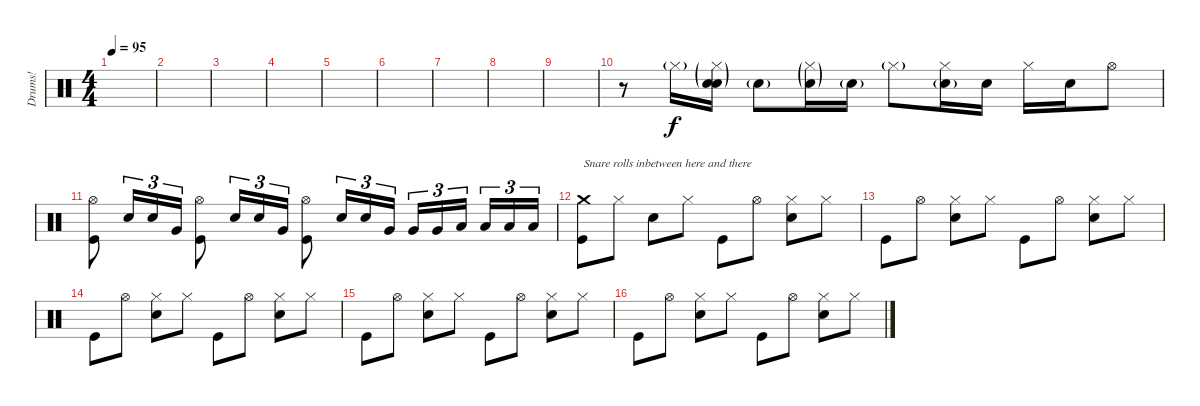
\track ("Drums!" "Drums!") {instrument percussion}
\staff {score}
\articulation defaults
\ts (4 4)
\tempo 95
\clef neutral
\ks c
|
|
|
|
|
|
|
|
|
r.8 "Hi-Hat (closed)"{g}.16 ("Hi-Hat (closed)"{g} "Electric Snare (hit)"{g} "Electric Snare (hit)").16 "Electric Snare (hit)"{g}.8 ("Hi-Hat (closed)"{g} "Electric Snare (hit)"{g}).16 "Electric Snare (hit)"{g}.16 "Hi-Hat (closed)"{g}.8 ("Hi-Hat (closed)" "Electric Snare (hit)"{g}).16 "Electric Snare (hit)".16{dy f} "Hi-Hat (closed)".16 "Electric Snare (hit)".16 "Hi-Hat (open)".8 |
("Hi-Hat (open)" "Kick (hit)").8 "Electric Snare (hit)".16{tu (3 2)} "Electric Snare (hit)".16{tu (3 2)} "Very Low Tom (hit)".16{tu (3 2)} ("Hi-Hat (open)" "Kick (hit)").8 "Electric Snare (hit)".16{tu (3 2)} "Electric Snare (hit)".16{tu (3 2)} "Very Low Tom (hit)".16{tu (3 2)} ("Hi-Hat (open)" "Kick (hit)").8 "Electric Snare (hit)".16{tu (3 2)} "Electric Snare (hit)".16{tu (3 2)} "Very Low Tom (hit)".16{tu (3 2)} "Very Low Tom (hit)".16{tu (3 2)} "Very Low Tom (hit)".16{tu (3 2)} "Low Floor Tom (hit)".16{tu (3 2) beam splitsecondary} "Low Floor Tom (hit)".16{tu (3 2)} "Low Floor Tom (hit)".16{tu (3 2)} "Low Floor Tom (hit)".16{tu (3 2)} |
("Crash medium (hit)" "Kick (hit)").8{txt "Snare rolls inbetween here and there"} "Hi-Hat (closed)".8 "Electric Snare (hit)".8 "Hi-Hat (closed)".8 "Kick (hit)".8 "Hi-Hat (open)".8 ("Hi-Hat (closed)" "Electric Snare (hit)").8 "Hi-Hat (closed)".8 |
"Kick (hit)".8 "Hi-Hat (open)".8 ("Hi-Hat (closed)" "Electric Snare (hit)").8 "Hi-Hat (closed)".8 "Kick (hit)".8 "Hi-Hat (open)".8 ("Hi-Hat (closed)" "Electric Snare (hit)").8 "Hi-Hat (closed)".8 |
"Kick (hit)".8 "Hi-Hat (open)".8 ("Hi-Hat (closed)" "Electric Snare (hit)").8 "Hi-Hat (closed)".8 "Kick (hit)".8 "Hi-Hat (open)".8 ("Hi-Hat (closed)" "Electric Snare (hit)").8 "Hi-Hat (closed)".8 |
"Kick (hit)".8 "Hi-Hat (open)".8 ("Hi-Hat (closed)" "Electric Snare (hit)").8 "Hi-Hat (closed)".8 "Kick (hit)".8 "Hi-Hat (open)".8 ("Hi-Hat (closed)" "Electric Snare (hit)").8 "Hi-Hat (closed)".8 |
"Kick (hit)".8 "Hi-Hat (open)".8 ("Hi-Hat (closed)" "Electric Snare (hit)").8 "Hi-Hat (closed)".8 "Kick (hit)".8 "Hi-Hat (open)".8 ("Hi-Hat (closed)" "Electric Snare (hit)").8 "Hi-Hat (closed)".8
